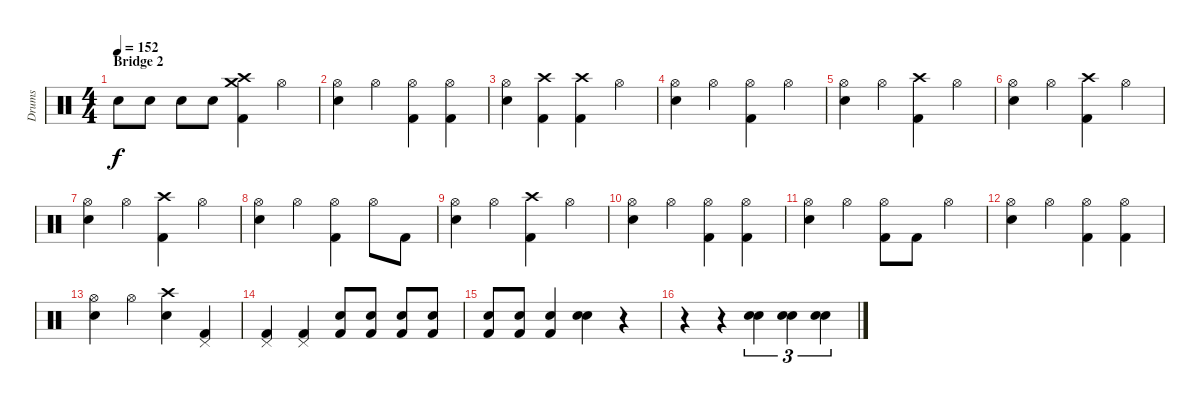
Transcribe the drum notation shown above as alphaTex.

\track ("Drums" "Drums") {instrument percussion}
\staff {score}
\articulation defaults
\ts (4 4)
\section ("" "Bridge 2")
\tempo 152
\clef neutral
\ks c "Electric Snare (hit)".8{dy f} "Electric Snare (hit)".8 "Electric Snare (hit)".8 "Electric Snare (hit)".8
("Kick (hit) 2" "Crash high (hit)" "Crash medium (hit)").4 "Hi-Hat (open)".4 |
("Electric Snare (hit)" "Hi-Hat (open)").4 "Hi-Hat (open)".4 ("Kick (hit) 2" "Hi-Hat (open)").4 ("Kick (hit) 2" "Hi-Hat (open)").4 |
("Electric Snare (hit)" "Hi-Hat (open)").4 ("Kick (hit) 2" "Crash high (hit)").4 ("Kick (hit) 2" "Crash high (hit)").4 "Hi-Hat (open)".4 |
("Electric Snare (hit)" "Hi-Hat (open)").4 "Hi-Hat (open)".4 ("Kick (hit) 2" "Hi-Hat (open)").4 "Hi-Hat (open)".4 |
("Electric Snare (hit)" "Hi-Hat (open)").4 "Hi-Hat (open)".4 ("Kick (hit) 2" "Crash high (hit)").4 "Hi-Hat (open)".4 |
("Electric Snare (hit)" "Hi-Hat (open)").4 "Hi-Hat (open)".4 ("Kick (hit) 2" "Crash high (hit)").4 "Hi-Hat (open)".4 |
("Electric Snare (hit)" "Hi-Hat (open)").4 "Hi-Hat (open)".4 ("Kick (hit) 2" "Crash high (hit)").4 "Hi-Hat (open)".4 |
("Electric Snare (hit)" "Hi-Hat (open)").4 "Hi-Hat (open)".4 ("Kick (hit) 2" "Hi-Hat (open)").4 "Hi-Hat (open)".8 "Kick (hit) 2".8 |
("Electric Snare (hit)" "Hi-Hat (open)").4 "Hi-Hat (open)".4 ("Kick (hit) 2" "Crash high (hit)").4 "Hi-Hat (open)".4 |
("Electric Snare (hit)" "Hi-Hat (open)").4 "Hi-Hat (open)".4 ("Kick (hit) 2" "Hi-Hat (open)").4 ("Kick (hit) 2" "Hi-Hat (open)").4 |
("Electric Snare (hit)" "Hi-Hat (open)").4 "Hi-Hat (open)".4 ("Kick (hit) 2" "Hi-Hat (open)").8 "Kick (hit) 2".8 "Hi-Hat (open)".4 |
("Electric Snare (hit)" "Hi-Hat (open)").4 "Hi-Hat (open)".4 ("Kick (hit) 2" "Hi-Hat (open)").4 ("Kick (hit) 2" "Hi-Hat (open)").4 |
("Electric Snare (hit)" "Hi-Hat (open)").4 "Hi-Hat (open)".4 ("Electric Snare (hit)" "Crash high (hit)").4 ("Kick (hit) 2" "Pedal Hi-Hat (hit)").4 |
("Kick (hit) 2" "Pedal Hi-Hat (hit)").4 ("Kick (hit) 2" "Pedal Hi-Hat (hit)").4 ("Kick (hit) 2" "Electric Snare (hit)").8 ("Kick (hit) 2" "Electric Snare (hit)").8 ("Kick (hit) 2" "Electric Snare (hit)").8 ("Kick (hit) 2" "Electric Snare (hit)").8 |
("Kick (hit) 2" "Electric Snare (hit)").8 ("Kick (hit) 2" "Electric Snare (hit)").8 ("Kick (hit) 2" "Electric Snare (hit)").4 ("Electric Snare (hit)" "Electric Snare (hit)").4 r.4 |
r.4 r.4 ("Electric Snare (hit)" "Electric Snare (hit)").4{tu (3 2)} ("Electric Snare (hit)" "Electric Snare (hit)").4{tu (3 2)} ("Electric Snare (hit)" "Electric Snare (hit)").4{tu (3 2)}
